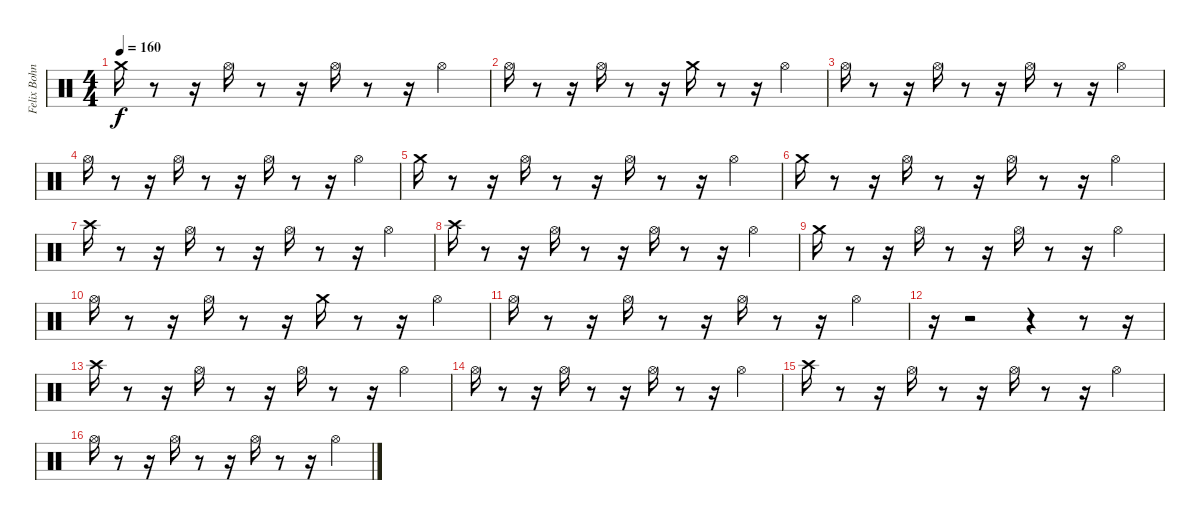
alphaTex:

\track ("Felix Bohnke" "Felix Bohn") {instrument percussion}
\staff {score}
\articulation defaults
\ts (4 4)
\tempo 160
\clef neutral
\ks c "Crash medium (hit)".16{dy f}
r.8 r.16 "Hi-Hat (open)".16 r.8 r.16 "Hi-Hat (open)".16 r.8 r.16 "Hi-Hat (open)".4 |
"Hi-Hat (open)".16 r.8 r.16 "Hi-Hat (open)".16 r.8 r.16 "Crash medium (hit)".16 r.8 r.16 "Hi-Hat (open)".4 |
"Hi-Hat (open)".16 r.8 r.16 "Hi-Hat (open)".16 r.8 r.16 "Hi-Hat (open)".16 r.8 r.16 "Hi-Hat (open)".4 |
"Hi-Hat (open)".16 r.8 r.16 "Hi-Hat (open)".16 r.8 r.16 "Hi-Hat (open)".16 r.8 r.16 "Hi-Hat (open)".4 |
"Crash medium (hit)".16 r.8 r.16 "Hi-Hat (open)".16 r.8 r.16 "Hi-Hat (open)".16 r.8 r.16 "Hi-Hat (open)".4 |
"Crash medium (hit)".16 r.8 r.16 "Hi-Hat (open)".16 r.8 r.16 "Hi-Hat (open)".16 r.8 r.16 "Hi-Hat (open)".4 |
"Crash high (hit)".16 r.8 r.16 "Hi-Hat (open)".16 r.8 r.16 "Hi-Hat (open)".16 r.8 r.16 "Hi-Hat (open)".4 |
"Crash high (hit)".16 r.8 r.16 "Hi-Hat (open)".16 r.8 r.16 "Hi-Hat (open)".16 r.8 r.16 "Hi-Hat (open)".4 |
"Crash medium (hit)".16 r.8 r.16 "Hi-Hat (open)".16 r.8 r.16 "Hi-Hat (open)".16 r.8 r.16 "Hi-Hat (open)".4 |
"Hi-Hat (open)".16 r.8 r.16 "Hi-Hat (open)".16 r.8 r.16 "Crash medium (hit)".16 r.8 r.16 "Hi-Hat (open)".4 |
"Hi-Hat (open)".16 r.8 r.16 "Hi-Hat (open)".16 r.8 r.16 "Hi-Hat (open)".16 r.8 r.16 "Hi-Hat (open)".4 |
r.16 r.2 r.4 r.8 r.16 |
"Crash high (hit)".16 r.8 r.16 "Hi-Hat (open)".16 r.8 r.16 "Hi-Hat (open)".16 r.8 r.16 "Hi-Hat (open)".4 |
"Hi-Hat (open)".16 r.8 r.16 "Hi-Hat (open)".16 r.8 r.16 "Hi-Hat (open)".16 r.8 r.16 "Hi-Hat (open)".4 |
"Crash high (hit)".16 r.8 r.16 "Hi-Hat (open)".16 r.8 r.16 "Hi-Hat (open)".16 r.8 r.16 "Hi-Hat (open)".4 |
"Hi-Hat (open)".16 r.8 r.16 "Hi-Hat (open)".16 r.8 r.16 "Hi-Hat (open)".16 r.8 r.16 "Hi-Hat (open)".4
